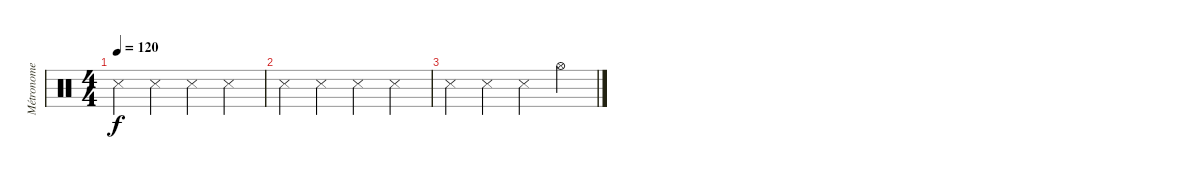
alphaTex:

\track ("Métronome" "Métronome") {instrument percussion}
\staff {score}
\articulation defaults
\ts (4 4)
\tempo 120
\clef neutral
\ks c "Metronome (hit)".4{dy f} "Metronome (hit)".4 "Metronome (hit)".4 "Metronome (hit)".4
|
"Metronome (hit)".4 "Metronome (hit)".4 "Metronome (hit)".4 "Metronome (hit)".4 |
"Metronome (hit)".4 "Metronome (hit)".4 "Metronome (hit)".4 "Hi-Hat (open)".4
